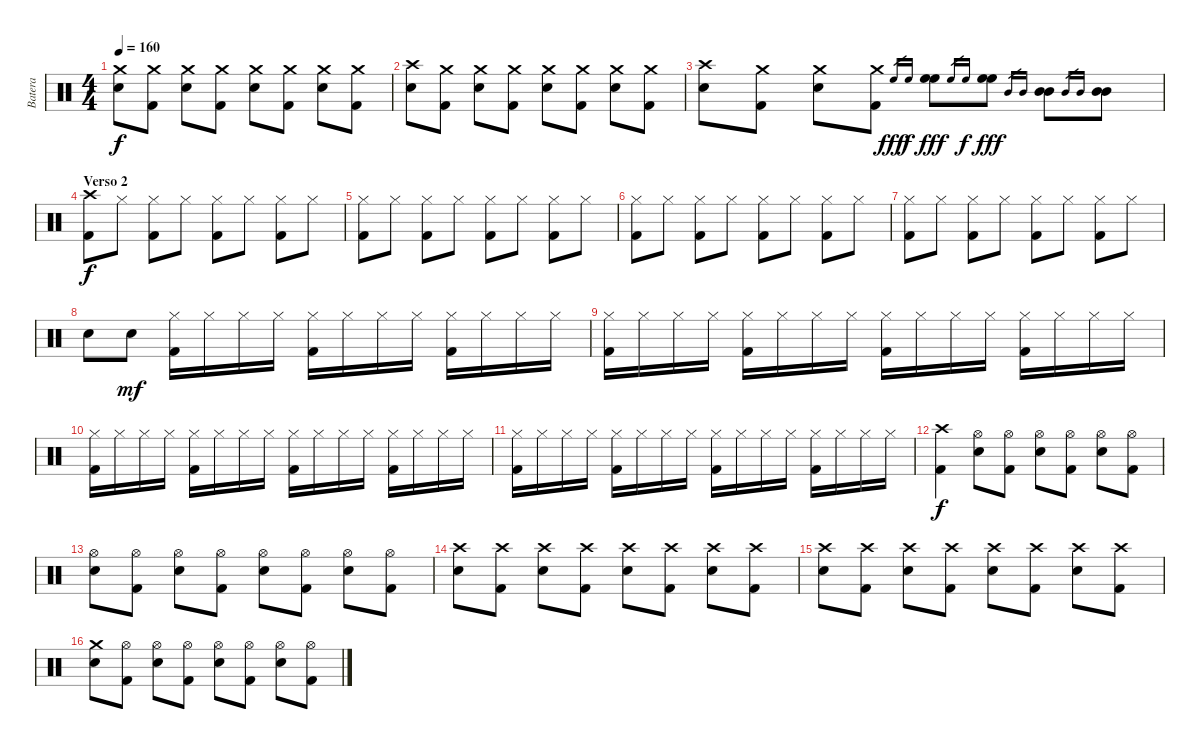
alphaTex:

\track ("Batera" "Batera") {instrument percussion}
\staff {score}
\articulation defaults
\ts (4 4)
\tempo 160
\clef neutral
\ks c
("Crash medium (hit)" "Electric Snare (hit)").8{dy f} ("Crash medium (hit)" "Kick (hit) 2").8 ("Crash medium (hit)" "Electric Snare (hit)").8 ("Crash medium (hit)" "Kick (hit) 2").8 ("Crash medium (hit)" "Electric Snare (hit)").8 ("Crash medium (hit)" "Kick (hit) 2").8 ("Crash medium (hit)" "Electric Snare (hit)").8 ("Crash medium (hit)" "Kick (hit) 2").8 |
("Crash high (hit)" "Electric Snare (hit)").8 ("Crash medium (hit)" "Kick (hit) 2").8 ("Crash medium (hit)" "Electric Snare (hit)").8 ("Crash medium (hit)" "Kick (hit) 2").8 ("Crash medium (hit)" "Electric Snare (hit)").8 ("Crash medium (hit)" "Kick (hit) 2").8 ("Crash medium (hit)" "Electric Snare (hit)").8 ("Crash medium (hit)" "Kick (hit) 2").8 |
("Crash high (hit)" "Electric Snare (hit)").8 ("Crash medium (hit)" "Kick (hit) 2").8 ("Crash medium (hit)" "Electric Snare (hit)").8 ("Crash medium (hit)" "Kick (hit) 2").8 "High Floor Tom (hit)".16{gr dy fff} "High Floor Tom (hit)".16{gr dy f} ("High Floor Tom (hit)" "High Floor Tom (hit)").8{dy fff} "High Floor Tom (hit)".16{gr} "High Floor Tom (hit)".16{gr dy f} ("High Floor Tom (hit)" "High Floor Tom (hit)").8{dy fff} "Mid Tom (hit)".16{gr} "Mid Tom (hit)".16{gr} ("Mid Tom (hit)" "Mid Tom (hit)").8 "Mid Tom (hit)".16{gr} "Mid Tom (hit)".16{gr} ("Mid Tom (hit)" "Mid Tom (hit)").8 |
\section ("" "Verso 2")
("Crash high (hit)" "Kick (hit) 2").8{dy f} "Hi-Hat (closed)".8 ("Hi-Hat (closed)" "Kick (hit) 2").8 "Hi-Hat (closed)".8 ("Hi-Hat (closed)" "Kick (hit) 2").8 "Hi-Hat (closed)".8 ("Hi-Hat (closed)" "Kick (hit) 2").8 "Hi-Hat (closed)".8 |
("Hi-Hat (closed)" "Kick (hit) 2").8 "Hi-Hat (closed)".8 ("Hi-Hat (closed)" "Kick (hit) 2").8 "Hi-Hat (closed)".8 ("Hi-Hat (closed)" "Kick (hit) 2").8 "Hi-Hat (closed)".8 ("Hi-Hat (closed)" "Kick (hit) 2").8 "Hi-Hat (closed)".8 |
("Hi-Hat (closed)" "Kick (hit) 2").8 "Hi-Hat (closed)".8 ("Hi-Hat (closed)" "Kick (hit) 2").8 "Hi-Hat (closed)".8 ("Hi-Hat (closed)" "Kick (hit) 2").8 "Hi-Hat (closed)".8 ("Hi-Hat (closed)" "Kick (hit) 2").8 "Hi-Hat (closed)".8 |
("Hi-Hat (closed)" "Kick (hit) 2").8 "Hi-Hat (closed)".8 ("Hi-Hat (closed)" "Kick (hit) 2").8 "Hi-Hat (closed)".8 ("Hi-Hat (closed)" "Kick (hit) 2").8 "Hi-Hat (closed)".8 ("Hi-Hat (closed)" "Kick (hit) 2").8 "Hi-Hat (closed)".8 |
"Electric Snare (hit)".8 "Electric Snare (hit)".8{dy mf} ("Hi-Hat (closed)" "Kick (hit) 2").16 "Hi-Hat (closed)".16 "Hi-Hat (closed)".16 "Hi-Hat (closed)".16 ("Hi-Hat (closed)" "Kick (hit) 2").16 "Hi-Hat (closed)".16 "Hi-Hat (closed)".16 "Hi-Hat (closed)".16 ("Hi-Hat (closed)" "Kick (hit) 2").16 "Hi-Hat (closed)".16 "Hi-Hat (closed)".16 "Hi-Hat (closed)".16 |
("Hi-Hat (closed)" "Kick (hit) 2").16 "Hi-Hat (closed)".16 "Hi-Hat (closed)".16 "Hi-Hat (closed)".16 ("Hi-Hat (closed)" "Kick (hit) 2").16 "Hi-Hat (closed)".16 "Hi-Hat (closed)".16 "Hi-Hat (closed)".16 ("Hi-Hat (closed)" "Kick (hit) 2").16 "Hi-Hat (closed)".16 "Hi-Hat (closed)".16 "Hi-Hat (closed)".16 ("Hi-Hat (closed)" "Kick (hit) 2").16 "Hi-Hat (closed)".16 "Hi-Hat (closed)".16 "Hi-Hat (closed)".16 |
("Hi-Hat (closed)" "Kick (hit) 2").16 "Hi-Hat (closed)".16 "Hi-Hat (closed)".16 "Hi-Hat (closed)".16 ("Hi-Hat (closed)" "Kick (hit) 2").16 "Hi-Hat (closed)".16 "Hi-Hat (closed)".16 "Hi-Hat (closed)".16 ("Hi-Hat (closed)" "Kick (hit) 2").16 "Hi-Hat (closed)".16 "Hi-Hat (closed)".16 "Hi-Hat (closed)".16 ("Hi-Hat (closed)" "Kick (hit) 2").16 "Hi-Hat (closed)".16 "Hi-Hat (closed)".16 "Hi-Hat (closed)".16 |
("Hi-Hat (closed)" "Kick (hit) 2").16 "Hi-Hat (closed)".16 "Hi-Hat (closed)".16 "Hi-Hat (closed)".16 ("Hi-Hat (closed)" "Kick (hit) 2").16 "Hi-Hat (closed)".16 "Hi-Hat (closed)".16 "Hi-Hat (closed)".16 ("Hi-Hat (closed)" "Kick (hit) 2").16 "Hi-Hat (closed)".16 "Hi-Hat (closed)".16 "Hi-Hat (closed)".16 ("Hi-Hat (closed)" "Kick (hit) 2").16 "Hi-Hat (closed)".16 "Hi-Hat (closed)".16 "Hi-Hat (closed)".16 |
("Crash high (hit)" "Kick (hit) 2").4{dy f} ("Hi-Hat (open)" "Electric Snare (hit)").8 ("Hi-Hat (open)" "Kick (hit) 2").8 ("Hi-Hat (open)" "Electric Snare (hit)").8 ("Hi-Hat (open)" "Kick (hit) 2").8 ("Hi-Hat (open)" "Electric Snare (hit)").8 ("Hi-Hat (open)" "Kick (hit) 2").8 |
("Hi-Hat (open)" "Electric Snare (hit)").8 ("Hi-Hat (open)" "Kick (hit) 2").8 ("Hi-Hat (open)" "Electric Snare (hit)").8 ("Hi-Hat (open)" "Kick (hit) 2").8 ("Hi-Hat (open)" "Electric Snare (hit)").8 ("Hi-Hat (open)" "Kick (hit) 2").8 ("Hi-Hat (open)" "Electric Snare (hit)").8 ("Hi-Hat (open)" "Kick (hit) 2").8 |
("Crash high (hit)" "Electric Snare (hit)").8 ("Crash high (hit)" "Kick (hit) 2").8 ("Crash high (hit)" "Electric Snare (hit)").8 ("Crash high (hit)" "Kick (hit) 2").8 ("Crash high (hit)" "Electric Snare (hit)").8 ("Crash high (hit)" "Kick (hit) 2").8 ("Crash high (hit)" "Electric Snare (hit)").8 ("Crash high (hit)" "Kick (hit) 2").8 |
("Crash high (hit)" "Electric Snare (hit)").8 ("Crash high (hit)" "Kick (hit) 2").8 ("Crash high (hit)" "Electric Snare (hit)").8 ("Crash high (hit)" "Kick (hit) 2").8 ("Crash high (hit)" "Electric Snare (hit)").8 ("Crash high (hit)" "Kick (hit) 2").8 ("Crash high (hit)" "Electric Snare (hit)").8 ("Crash high (hit)" "Kick (hit) 2").8 |
("Crash medium (hit)" "Electric Snare (hit)").8 ("Hi-Hat (open)" "Kick (hit) 2").8 ("Hi-Hat (open)" "Electric Snare (hit)").8 ("Hi-Hat (open)" "Kick (hit) 2").8 ("Hi-Hat (open)" "Electric Snare (hit)").8 ("Hi-Hat (open)" "Kick (hit) 2").8 ("Hi-Hat (open)" "Electric Snare (hit)").8 ("Hi-Hat (open)" "Kick (hit) 2").8
